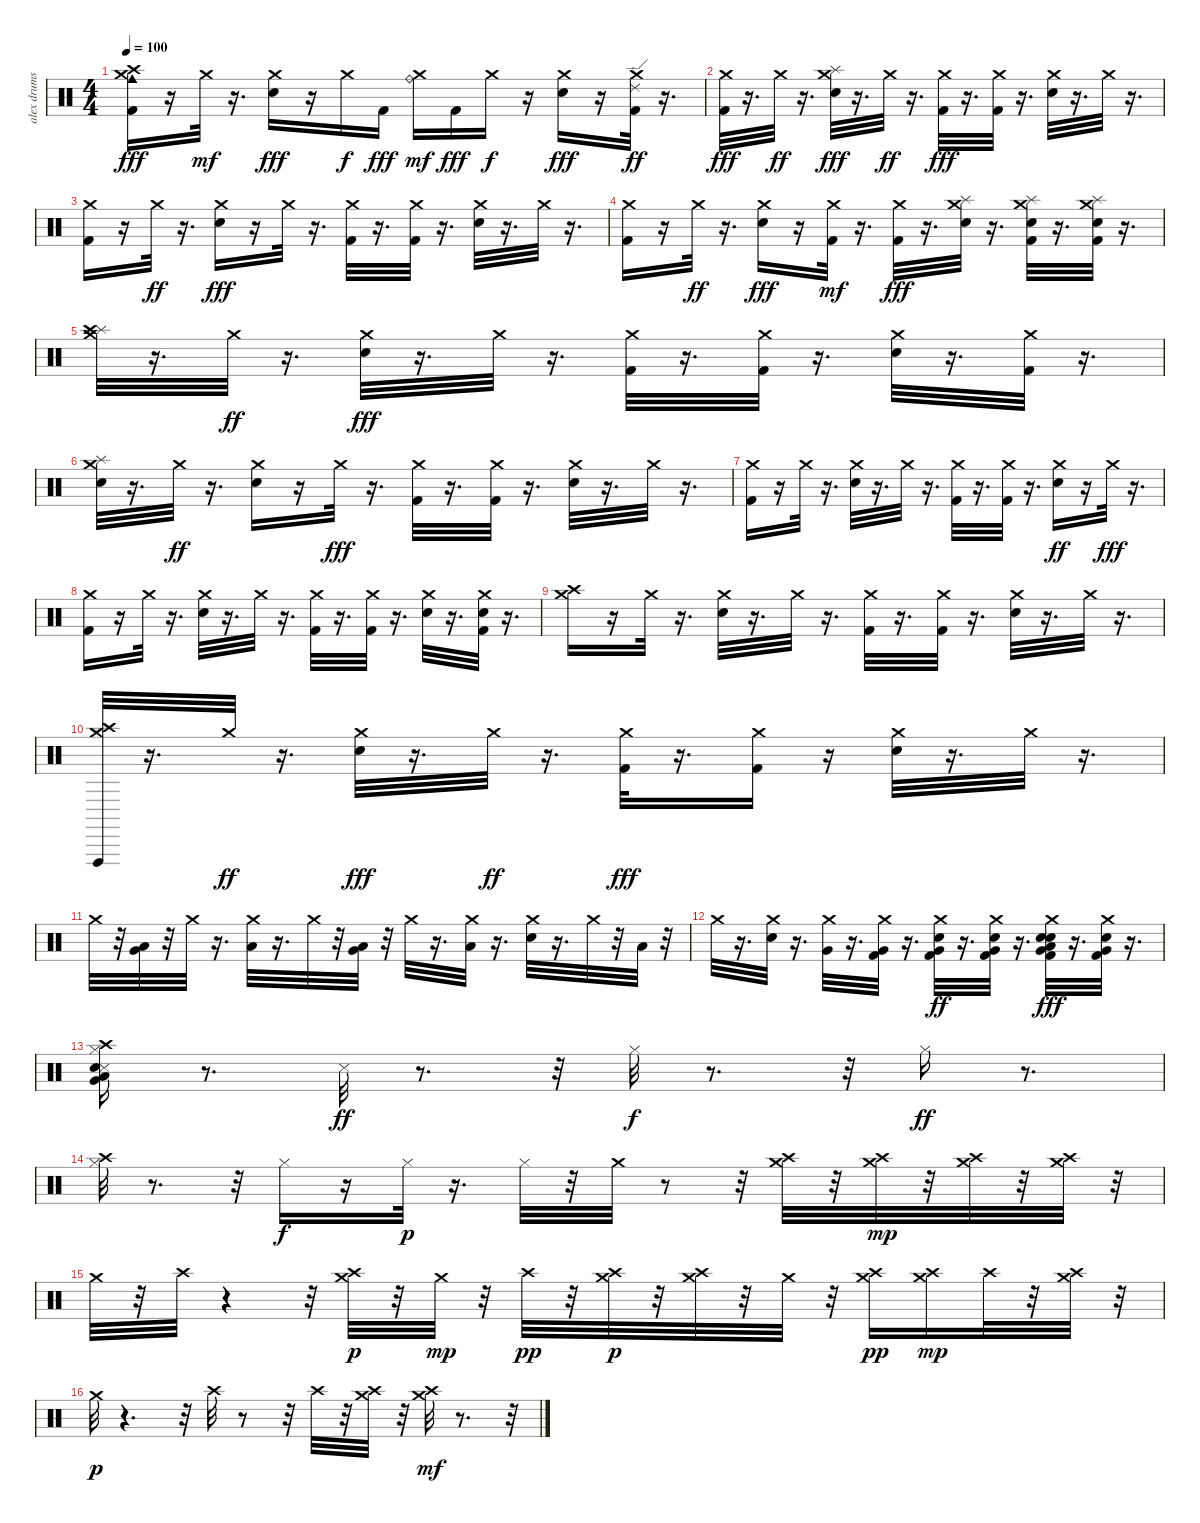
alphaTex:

\track ("alex drums" "alex drums") {instrument percussion}
\staff {score}
\articulation defaults
\ts (4 4)
\tempo 100
\clef neutral
\ks c
("Cowbell medium (hit)" "Crash medium (hit)" "Crash high (hit)" "Kick (hit) 2").16{dy fff} r.16 "Crash medium (hit)".32{dy mf} r.16{d} ("Crash medium (hit)" "Electric Snare (hit)").16{dy fff} r.16 "Crash medium (hit)".16{dy f} "Kick (hit) 2".16{dy fff} ("Ride (bell)" "Crash medium (hit)").16{dy mf} "Kick (hit) 2".16{dy fff} "Crash medium (hit)".16{dy f} r.16 ("Electric Snare (hit)" "Crash medium (hit)").16{dy fff} r.16 ("Kick (hit) 2" "Ride (edge) 2" "Crash medium (hit)").32{dy ff} r.16{d} |
("Crash medium (hit)" "Kick (hit) 2").32{dy fff} r.16{d} "Crash medium (hit)".32{dy ff} r.16{d} ("Splash (hit)" "Crash medium (hit)" "Electric Snare (hit)").32{dy fff} r.16{d} "Crash medium (hit)".32{dy ff} r.16{d} ("Crash medium (hit)" "Kick (hit) 2").32{dy fff} r.16{d} ("Crash medium (hit)" "Kick (hit) 2").32 r.16{d} ("Crash medium (hit)" "Electric Snare (hit)").32 r.16{d} "Crash medium (hit)".32 r.16{d} |
("Crash medium (hit)" "Kick (hit) 2").16 r.16 "Crash medium (hit)".32{dy ff} r.16{d} ("Crash medium (hit)" "Electric Snare (hit)").16{dy fff} r.16 "Crash medium (hit)".32 r.16{d} ("Crash medium (hit)" "Kick (hit) 2").32 r.16{d} ("Kick (hit) 2" "Crash medium (hit)").32 r.16{d} ("Crash medium (hit)" "Electric Snare (hit)").32 r.16{d} "Crash medium (hit)".32 r.16{d} |
("Crash medium (hit)" "Kick (hit) 2").16 r.16 "Crash medium (hit)".32{dy ff} r.16{d} ("Crash medium (hit)" "Electric Snare (hit)").16{dy fff} r.16 ("Crash medium (hit)" "Kick (hit) 2").32{dy mf} r.16{d} ("Crash medium (hit)" "Kick (hit) 2").32{dy fff} r.16{d} ("Splash (hit)" "Crash medium (hit)" "Electric Snare (hit)").32 r.16{d} ("Crash medium (hit)" "Splash (hit)" "Electric Snare (hit)" "Kick (hit) 2").32 r.16{d} ("Splash (hit)" "Crash medium (hit)" "Electric Snare (hit)" "Kick (hit) 2").32 r.16{d} |
("Splash (hit)" "Crash medium (hit)" "Crash high (hit)").32 r.16{d} "Crash medium (hit)".32{dy ff} r.16{d} ("Crash medium (hit)" "Electric Snare (hit)").32{dy fff} r.16{d} "Crash medium (hit)".32 r.16{d} ("Crash medium (hit)" "Kick (hit) 2").32 r.16{d} ("Crash medium (hit)" "Kick (hit) 2").32 r.16{d} ("Crash medium (hit)" "Electric Snare (hit)").32 r.16{d} ("Crash medium (hit)" "Kick (hit) 2").32 r.16{d} |
("Splash (hit)" "Crash medium (hit)" "Electric Snare (hit)").32 r.16{d} "Crash medium (hit)".32{dy ff} r.16{d} ("Crash medium (hit)" "Electric Snare (hit)").16 r.16 "Crash medium (hit)".32{dy fff} r.16{d} ("Kick (hit) 2" "Crash medium (hit)").32 r.16{d} ("Crash medium (hit)" "Kick (hit) 2").32 r.16{d} ("Crash medium (hit)" "Electric Snare (hit)").32 r.16{d} "Crash medium (hit)".32 r.16{d} |
("Crash medium (hit)" "Kick (hit) 2").16 r.16 "Crash medium (hit)".32 r.16{d} ("Crash medium (hit)" "Electric Snare (hit)").32 r.16{d} "Crash medium (hit)".32 r.16{d} ("Crash medium (hit)" "Kick (hit) 2").32 r.16{d} ("Crash medium (hit)" "Kick (hit) 2").32 r.16{d} ("Crash medium (hit)" "Electric Snare (hit)").16{dy ff} r.16 "Crash medium (hit)".32{dy fff} r.16{d} |
("Crash medium (hit)" "Kick (hit) 2").16 r.16 "Crash medium (hit)".32 r.16{d} ("Crash medium (hit)" "Electric Snare (hit)").32 r.16{d} "Crash medium (hit)".32 r.16{d} ("Crash medium (hit)" "Kick (hit) 2").32 r.16{d} ("Crash medium (hit)" "Kick (hit) 2").32 r.16{d} ("Crash medium (hit)" "Electric Snare (hit)").32 r.16{d} ("Kick (hit) 2" "Electric Snare (hit)" "Crash medium (hit)").32 r.16{d} |
("Crash medium (hit)" "Crash high (hit)").16 r.16 "Crash medium (hit)".32 r.16{d} ("Crash medium (hit)" "Electric Snare (hit)").32 r.16{d} "Crash medium (hit)".32 r.16{d} ("Crash medium (hit)" "Kick (hit) 2").32 r.16{d} ("Crash medium (hit)" "Kick (hit) 2").32 r.16{d} ("Crash medium (hit)" "Electric Snare (hit)").32 r.16{d} "Crash medium (hit)".32 r.16{d} |
("Crash high (hit)" "Vibraslap (hit)" "Crash medium (hit)").32 r.16{d} "Crash medium (hit)".32{dy ff} r.16{d} ("Crash medium (hit)" "Electric Snare (hit)").32{dy fff} r.16{d} "Crash medium (hit)".32{dy ff} r.16{d} ("Crash medium (hit)" "Kick (hit) 2").32{dy fff} r.16{d} ("Crash medium (hit)" "Kick (hit) 2").16 r.16 ("Crash medium (hit)" "Electric Snare (hit)").32 r.16{d} "Crash medium (hit)".32 r.16{d} |
"Crash medium (hit)".32 r.32 ("Low Tom (hit)" "Very Low Tom (hit)").32 r.32 "Crash medium (hit)".32 r.16{d} ("Crash medium (hit)" "Low Floor Tom (hit)").32 r.16{d} "Crash medium (hit)".32 r.32 ("Low Tom (hit)" "Very Low Tom (hit)").32 r.32 "Crash medium (hit)".32 r.16{d} ("Crash medium (hit)" "Low Tom (hit)").32 r.16{d} ("Crash medium (hit)" "Snare (hit) 2").32 r.16{d} "Crash medium (hit)".32 r.32 "Low Tom (hit)".32 r.32 |
"Crash medium (hit)".32 r.16{d} ("Crash medium (hit)" "Electric Snare (hit)").32 r.16{d} ("Very Low Tom (hit)" "Crash medium (hit)").32 r.16{d} ("Crash medium (hit)" "Very Low Tom (hit)" "Kick (hit) 2").32 r.16{d} ("Crash medium (hit)" "Electric Snare (hit)" "Very Low Tom (hit)" "Kick (hit) 2").32{dy ff} r.16{d} ("Crash medium (hit)" "Electric Snare (hit)" "Very Low Tom (hit)" "Kick (hit) 2").32 r.16{d} ("Crash medium (hit)" "Snare (hit) 2" "Low Floor Tom (hit)" "Electric Snare (hit)" "Very Low Tom (hit)" "Kick (hit) 2").32{dy fff} r.16{d} ("Crash medium (hit)" "Electric Snare (hit)" "Kick (hit) 2" "Very Low Tom (hit)").32 r.16{d} |
("Low Floor Tom (hit)" "Very Low Tom (hit)" "Snare (side stick) 3" "Crash high (hit)" "Hi-Hat (closed)" "Hand Clap (hit)").16 r.8{d} "Snare (side stick) 3".32{dy ff} r.8{d} r.32 "Hi-Hat (closed)".32{dy f} r.8{d} r.32 "Hi-Hat (closed)".16{dy ff} r.8{d} |
("Crash high (hit)" "Hi-Hat (closed)").32 r.8{d} r.32 "Hi-Hat (closed)".16{dy f} r.16 "Hi-Hat (closed)".32{dy p} r.16{d} "Hi-Hat (closed)".32 r.32 "Crash medium (hit)".32 r.8 r.32 ("Crash high (hit)" "Crash medium (hit)").32 r.32 ("Crash high (hit)" "Crash medium (hit)").32{dy mp} r.32 ("Crash high (hit)" "Crash medium (hit)").32 r.32 ("Crash high (hit)" "Crash medium (hit)").32 r.32 |
"Crash medium (hit)".32 r.32 "Crash high (hit)".32 r.4 r.32 ("Crash high (hit)" "Crash medium (hit)").32{dy p} r.32 "Crash medium (hit)".32{dy mp} r.32 "Crash high (hit)".32{dy pp} r.32 ("Crash high (hit)" "Crash medium (hit)").32{dy p} r.32 ("Crash high (hit)" "Crash medium (hit)").32 r.32 "Crash medium (hit)".32 r.32 ("Crash medium (hit)" "Crash high (hit)").16{dy pp} ("Crash medium (hit)" "Crash high (hit)").16{dy mp} "Crash high (hit)".32 r.32 ("Crash high (hit)" "Crash medium (hit)").32 r.32 |
"Crash medium (hit)".32{dy p} r.4{d} r.32 "Crash high (hit)".32 r.8 r.32 "Crash high (hit)".32 r.32 ("Crash high (hit)" "Crash medium (hit)").32 r.32 ("Crash high (hit)" "Crash medium (hit)").32{dy mf} r.8{d} r.32
